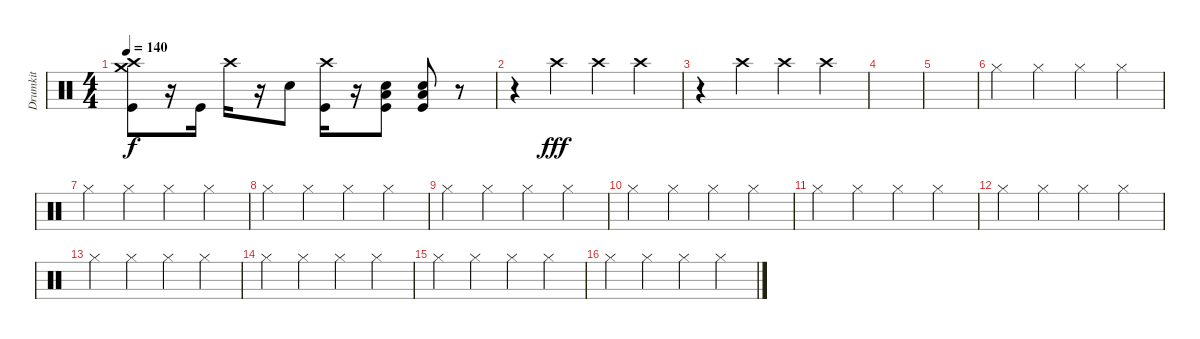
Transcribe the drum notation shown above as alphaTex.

\track ("Drumkit" "Drumkit") {instrument percussion}
\staff {score}
\articulation defaults
\ts (4 4)
\tempo 140
\clef neutral
\ks c
("Crash high (hit)" "Crash medium (hit)" "Kick (hit)").8{dy f} r.16 "Kick (hit)".16 "Crash high (hit)".16 r.16 "Snare (hit) 2".8 ("Kick (hit)" "Crash high (hit)").16 r.16 ("Snare (hit) 2" "Low Tom (hit)" "Kick (hit)").8 ("Kick (hit)" "Low Tom (hit)" "Snare (hit) 2").8 r.8 |
r.4 "Crash high (hit)".4{dy fff} "Crash high (hit)".4 "Crash high (hit)".4 |
r.4 "Crash high (hit)".4 "Crash high (hit)".4 "Crash high (hit)".4 |
|
|
"Hi-Hat (closed)".4 "Hi-Hat (closed)".4 "Hi-Hat (closed)".4 "Hi-Hat (closed)".4 |
"Hi-Hat (closed)".4 "Hi-Hat (closed)".4 "Hi-Hat (closed)".4 "Hi-Hat (closed)".4 |
"Hi-Hat (closed)".4 "Hi-Hat (closed)".4 "Hi-Hat (closed)".4 "Hi-Hat (closed)".4 |
"Hi-Hat (closed)".4 "Hi-Hat (closed)".4 "Hi-Hat (closed)".4 "Hi-Hat (closed)".4 |
"Hi-Hat (closed)".4 "Hi-Hat (closed)".4 "Hi-Hat (closed)".4 "Hi-Hat (closed)".4 |
"Hi-Hat (closed)".4 "Hi-Hat (closed)".4 "Hi-Hat (closed)".4 "Hi-Hat (closed)".4 |
"Hi-Hat (closed)".4 "Hi-Hat (closed)".4 "Hi-Hat (closed)".4 "Hi-Hat (closed)".4 |
"Hi-Hat (closed)".4 "Hi-Hat (closed)".4 "Hi-Hat (closed)".4 "Hi-Hat (closed)".4 |
"Hi-Hat (closed)".4 "Hi-Hat (closed)".4 "Hi-Hat (closed)".4 "Hi-Hat (closed)".4 |
"Hi-Hat (closed)".4 "Hi-Hat (closed)".4 "Hi-Hat (closed)".4 "Hi-Hat (closed)".4 |
"Hi-Hat (closed)".4 "Hi-Hat (closed)".4 "Hi-Hat (closed)".4 "Hi-Hat (closed)".4
